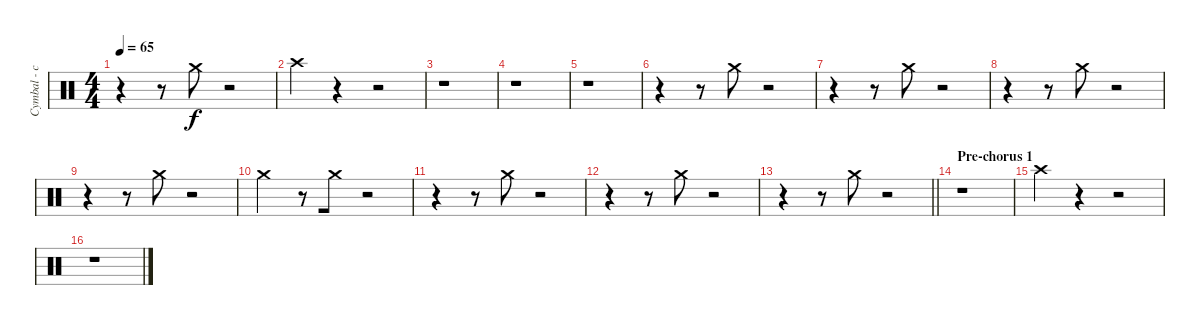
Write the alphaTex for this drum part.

\track ("Cymbal - crash - right" "Cymbal - c") {instrument percussion}
\staff {score}
\articulation defaults
\ts (4 4)
\tempo 65
\clef neutral
\ks c
r.4{dy f beam merge} r.8 "Crash medium (hit)".8 r.2 |
"Crash high (hit)".4{volume 0} r.4 r.2 |
r.1 |
r.1 |
r.1 |
r.4{volume 11 beam merge} r.8 "Crash medium (hit)".8 r.2 |
r.4{beam merge} r.8 "Crash medium (hit)".8 r.2 |
r.4{beam merge} r.8 "Crash medium (hit)".8 r.2 |
r.4{beam merge} r.8 "Crash medium (hit)".8 r.2 |
"Crash medium (hit)".4{beam merge} r.8 "Crash medium (hit)".8 r.2 |
r.4{beam merge} r.8 "Crash medium (hit)".8 r.2 |
r.4{beam merge} r.8 "Crash medium (hit)".8 r.2 |
\barLineRight lightlight
r.4{beam merge} r.8 "Crash medium (hit)".8 r.2 |
\section ("" "Pre-chorus 1")
r.1 |
"Crash high (hit)".4 r.4 r.2 |
r.1
